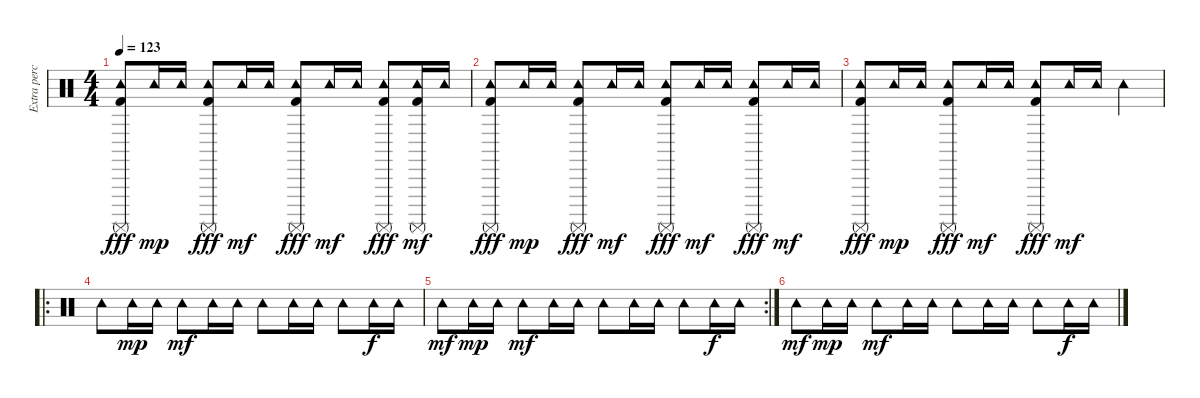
\track ("Extra percussion" "Extra perc") {instrument percussion}
\staff {score}
\articulation defaults
\ts (4 4)
\tempo 123
\clef neutral
\ks c
("Tambourine (hit)" "Surdo (mute)" "Kick (hit) 2").8{dy fff} "Tambourine (hit)".16{dy mp} "Tambourine (hit)".16 ("Tambourine (hit)" "Surdo (mute)" "Kick (hit) 2").8{dy fff} "Tambourine (hit)".16{dy mf} "Tambourine (hit)".16 ("Tambourine (hit)" "Surdo (mute)" "Kick (hit) 2").8{dy fff} "Tambourine (hit)".16{dy mf} "Tambourine (hit)".16 ("Tambourine (hit)" "Surdo (mute)" "Kick (hit) 2").8{dy fff} ("Tambourine (hit)" "Surdo (mute)" "Kick (hit) 2").16{dy mf} "Tambourine (hit)".16 |
("Tambourine (hit)" "Surdo (mute)" "Kick (hit) 2").8{dy fff} "Tambourine (hit)".16{dy mp} "Tambourine (hit)".16 ("Tambourine (hit)" "Surdo (mute)" "Kick (hit) 2").8{dy fff} "Tambourine (hit)".16{dy mf} "Tambourine (hit)".16 ("Tambourine (hit)" "Surdo (mute)" "Kick (hit) 2").8{dy fff} "Tambourine (hit)".16{dy mf} "Tambourine (hit)".16 ("Tambourine (hit)" "Surdo (mute)" "Kick (hit) 2").8{dy fff} "Tambourine (hit)".16{dy mf} "Tambourine (hit)".16 |
("Tambourine (hit)" "Surdo (mute)" "Kick (hit) 2").8{dy fff} "Tambourine (hit)".16{dy mp} "Tambourine (hit)".16 ("Tambourine (hit)" "Surdo (mute)" "Kick (hit) 2").8{dy fff} "Tambourine (hit)".16{dy mf} "Tambourine (hit)".16 ("Tambourine (hit)" "Surdo (mute)" "Kick (hit) 2").8{dy fff} "Tambourine (hit)".16{dy mf} "Tambourine (hit)".16 "Tambourine (hit)".4 |
\ro "Tambourine (hit)".8 "Tambourine (hit)".16{dy mp} "Tambourine (hit)".16 "Tambourine (hit)".8{dy mf} "Tambourine (hit)".16 "Tambourine (hit)".16 "Tambourine (hit)".8 "Tambourine (hit)".16 "Tambourine (hit)".16 "Tambourine (hit)".8 "Tambourine (hit)".16{dy f} "Tambourine (hit)".16
|
\rc 2 "Tambourine (hit)".8{dy mf} "Tambourine (hit)".16{dy mp} "Tambourine (hit)".16 "Tambourine (hit)".8{dy mf} "Tambourine (hit)".16 "Tambourine (hit)".16 "Tambourine (hit)".8 "Tambourine (hit)".16 "Tambourine (hit)".16 "Tambourine (hit)".8 "Tambourine (hit)".16{dy f} "Tambourine (hit)".16
|
"Tambourine (hit)".8{dy mf} "Tambourine (hit)".16{dy mp} "Tambourine (hit)".16 "Tambourine (hit)".8{dy mf} "Tambourine (hit)".16 "Tambourine (hit)".16 "Tambourine (hit)".8 "Tambourine (hit)".16 "Tambourine (hit)".16 "Tambourine (hit)".8 "Tambourine (hit)".16{dy f} "Tambourine (hit)".16
